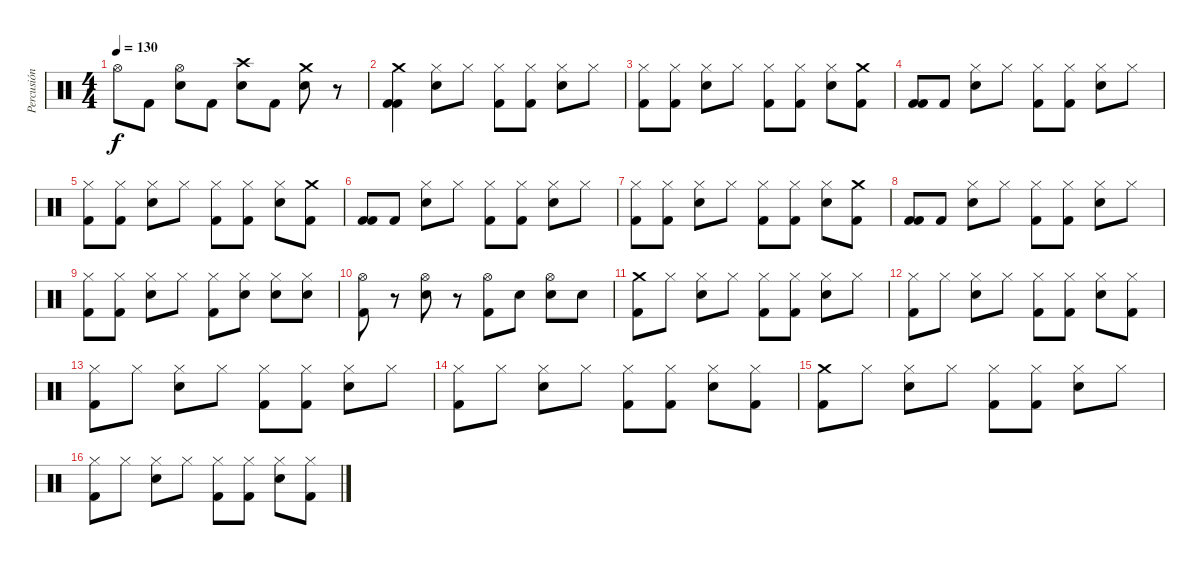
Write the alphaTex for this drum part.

\track ("Percusión" "Percusión") {instrument percussion}
\staff {score}
\articulation defaults
\ts (4 4)
\tempo 130
\clef neutral
\ks c "Hi-Hat (open)".8{dy f} "Kick (hit) 2".8
("Snare (hit) 2" "Hi-Hat (open)").8 "Kick (hit) 2".8 ("Snare (hit) 2" "Crash high (hit)").8 "Kick (hit) 2".8 ("Snare (hit) 2" "Crash medium (hit)").8 r.8 |
("Kick (hit) 2" "Kick (hit) 2" "Crash medium (hit)").4 ("Snare (hit) 2" "Hi-Hat (closed)").8 "Hi-Hat (closed)".8 ("Kick (hit) 2" "Hi-Hat (closed)").8 ("Kick (hit) 2" "Hi-Hat (closed)").8 ("Snare (hit) 2" "Hi-Hat (closed)").8 "Hi-Hat (closed)".8 |
("Kick (hit) 2" "Hi-Hat (closed)").8 ("Kick (hit) 2" "Hi-Hat (closed)").8 ("Snare (hit) 2" "Hi-Hat (closed)").8 "Hi-Hat (closed)".8 ("Kick (hit) 2" "Hi-Hat (closed)").8 ("Kick (hit) 2" "Hi-Hat (closed)").8 ("Snare (hit) 2" "Hi-Hat (closed)").8 ("Kick (hit) 2" "Crash medium (hit)").8 |
("Kick (hit) 2" "Kick (hit) 2").8 "Kick (hit) 2".8 ("Snare (hit) 2" "Hi-Hat (closed)").8 "Hi-Hat (closed)".8 ("Kick (hit) 2" "Hi-Hat (closed)").8 ("Kick (hit) 2" "Hi-Hat (closed)").8 ("Snare (hit) 2" "Hi-Hat (closed)").8 "Hi-Hat (closed)".8 |
("Kick (hit) 2" "Hi-Hat (closed)").8 ("Kick (hit) 2" "Hi-Hat (closed)").8 ("Snare (hit) 2" "Hi-Hat (closed)").8 "Hi-Hat (closed)".8 ("Kick (hit) 2" "Hi-Hat (closed)").8 ("Kick (hit) 2" "Hi-Hat (closed)").8 ("Snare (hit) 2" "Hi-Hat (closed)").8 ("Kick (hit) 2" "Crash medium (hit)").8 |
("Kick (hit) 2" "Kick (hit) 2").8 "Kick (hit) 2".8 ("Snare (hit) 2" "Hi-Hat (closed)").8 "Hi-Hat (closed)".8 ("Kick (hit) 2" "Hi-Hat (closed)").8 ("Kick (hit) 2" "Hi-Hat (closed)").8 ("Snare (hit) 2" "Hi-Hat (closed)").8 "Hi-Hat (closed)".8 |
("Kick (hit) 2" "Hi-Hat (closed)").8 ("Kick (hit) 2" "Hi-Hat (closed)").8 ("Snare (hit) 2" "Hi-Hat (closed)").8 "Hi-Hat (closed)".8 ("Kick (hit) 2" "Hi-Hat (closed)").8 ("Kick (hit) 2" "Hi-Hat (closed)").8 ("Snare (hit) 2" "Hi-Hat (closed)").8 ("Kick (hit) 2" "Crash medium (hit)").8 |
("Kick (hit) 2" "Kick (hit) 2").8 "Kick (hit) 2".8 ("Snare (hit) 2" "Hi-Hat (closed)").8 "Hi-Hat (closed)".8 ("Kick (hit) 2" "Hi-Hat (closed)").8 ("Kick (hit) 2" "Hi-Hat (closed)").8 ("Snare (hit) 2" "Hi-Hat (closed)").8 "Hi-Hat (closed)".8 |
("Kick (hit) 2" "Hi-Hat (closed)").8 ("Kick (hit) 2" "Hi-Hat (closed)").8 ("Snare (hit) 2" "Hi-Hat (closed)").8 "Hi-Hat (closed)".8 ("Kick (hit) 2" "Hi-Hat (closed)").8 ("Snare (hit) 2" "Hi-Hat (closed)").8 ("Snare (hit) 2" "Hi-Hat (closed)").8 ("Snare (hit) 2" "Hi-Hat (closed)").8 |
("Kick (hit) 2" "Hi-Hat (open)").8 r.8 ("Snare (hit) 2" "Hi-Hat (open)").8 r.8 ("Kick (hit) 2" "Hi-Hat (open)").8 "Snare (hit) 2".8 ("Snare (hit) 2" "Hi-Hat (open)").8 "Snare (hit) 2".8 |
("Kick (hit) 2" "Crash medium (hit)").8 "Hi-Hat (closed)".8 ("Snare (hit) 2" "Hi-Hat (closed)").8 "Hi-Hat (closed)".8 ("Kick (hit) 2" "Hi-Hat (closed)").8 ("Kick (hit) 2" "Hi-Hat (closed)").8 ("Snare (hit) 2" "Hi-Hat (closed)").8 "Hi-Hat (closed)".8 |
("Kick (hit) 2" "Hi-Hat (closed)").8 "Hi-Hat (closed)".8 ("Snare (hit) 2" "Hi-Hat (closed)").8 "Hi-Hat (closed)".8 ("Kick (hit) 2" "Hi-Hat (closed)").8 ("Kick (hit) 2" "Hi-Hat (closed)").8 ("Snare (hit) 2" "Hi-Hat (closed)").8 ("Kick (hit) 2" "Hi-Hat (closed)").8 |
("Kick (hit) 2" "Hi-Hat (closed)").8 "Hi-Hat (closed)".8 ("Snare (hit) 2" "Hi-Hat (closed)").8 "Hi-Hat (closed)".8 ("Kick (hit) 2" "Hi-Hat (closed)").8 ("Kick (hit) 2" "Hi-Hat (closed)").8 ("Snare (hit) 2" "Hi-Hat (closed)").8 "Hi-Hat (closed)".8 |
("Kick (hit) 2" "Hi-Hat (closed)").8 "Hi-Hat (closed)".8 ("Snare (hit) 2" "Hi-Hat (closed)").8 "Hi-Hat (closed)".8 ("Kick (hit) 2" "Hi-Hat (closed)").8 ("Kick (hit) 2" "Hi-Hat (closed)").8 ("Snare (hit) 2" "Hi-Hat (closed)").8 ("Kick (hit) 2" "Hi-Hat (closed)").8 |
("Kick (hit) 2" "Crash medium (hit)").8 "Hi-Hat (closed)".8 ("Snare (hit) 2" "Hi-Hat (closed)").8 "Hi-Hat (closed)".8 ("Kick (hit) 2" "Hi-Hat (closed)").8 ("Kick (hit) 2" "Hi-Hat (closed)").8 ("Snare (hit) 2" "Hi-Hat (closed)").8 "Hi-Hat (closed)".8 |
("Kick (hit) 2" "Hi-Hat (closed)").8 "Hi-Hat (closed)".8 ("Snare (hit) 2" "Hi-Hat (closed)").8 "Hi-Hat (closed)".8 ("Kick (hit) 2" "Hi-Hat (closed)").8 ("Kick (hit) 2" "Hi-Hat (closed)").8 ("Snare (hit) 2" "Hi-Hat (closed)").8 ("Kick (hit) 2" "Hi-Hat (closed)").8
